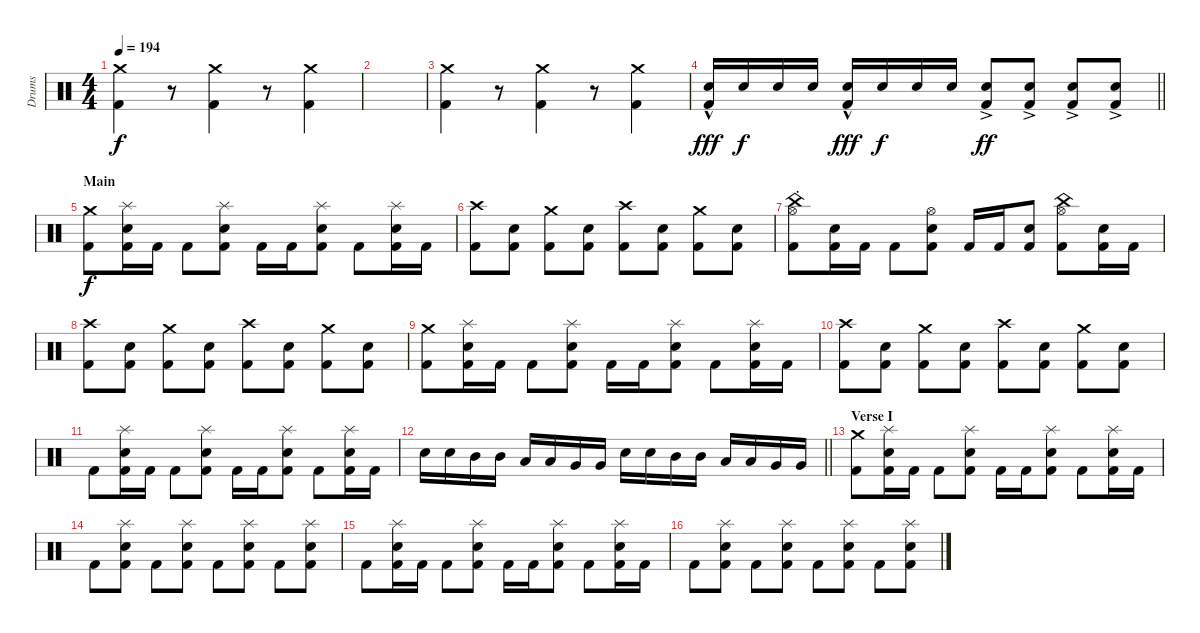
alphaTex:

\track ("Drums" "Drums") {instrument percussion}
\staff {score}
\articulation defaults
\ts (4 4)
\tempo 194
\clef neutral
\ks c
("Kick (hit) 2" "Crash medium (hit)").4{dy f} r.8 ("Kick (hit) 2" "Crash medium (hit)").4 r.8 ("Kick (hit) 2" "Crash medium (hit)").4 |
|
("Kick (hit) 2" "Crash medium (hit)").4 r.8 ("Kick (hit) 2" "Crash medium (hit)").4 r.8 ("Kick (hit) 2" "Crash medium (hit)").4 |
\barLineRight lightlight
("Kick (hit) 2"{hac} "Snare (hit) 2"{hac}).16{dy fff} "Snare (hit) 2".16{dy f} "Snare (hit) 2".16 "Snare (hit) 2".16 ("Kick (hit) 2"{hac} "Snare (hit) 2"{hac}).16{dy fff} "Snare (hit) 2".16{dy f} "Snare (hit) 2".16 "Snare (hit) 2".16 ("Kick (hit) 2" "Snare (hit) 2"{ac}).8{dy ff} ("Kick (hit) 2" "Snare (hit) 2"{ac}).8 ("Kick (hit) 2" "Snare (hit) 2"{ac}).8 ("Kick (hit) 2" "Snare (hit) 2"{ac}).8 |
\section ("" "Main")
("Kick (hit) 2" "Crash medium (hit)").8{dy f} ("Kick (hit) 2" "Snare (hit) 2" "Splash (hit)").16 "Kick (hit) 2".16 "Kick (hit) 2".8 ("Kick (hit) 2" "Snare (hit) 2" "Splash (hit)").8 "Kick (hit) 2".16 "Kick (hit) 2".16 ("Kick (hit) 2" "Snare (hit) 2" "Splash (hit)").8 "Kick (hit) 2".8 ("Kick (hit) 2" "Snare (hit) 2" "Splash (hit)").16 "Kick (hit) 2".16 |
("Kick (hit) 2" "Crash high (hit)").8 ("Kick (hit) 2" "Snare (hit) 2").8 ("Kick (hit) 2" "Crash medium (hit)").8 ("Kick (hit) 2" "Snare (hit) 2").8 ("Kick (hit) 2" "Crash high (hit)").8 ("Kick (hit) 2" "Snare (hit) 2").8 ("Kick (hit) 2" "Crash medium (hit)").8 ("Kick (hit) 2" "Snare (hit) 2").8 |
("Kick (hit) 2" "China (hit)"{st} "Hi-Hat (open)").8 ("Kick (hit) 2" "Snare (hit) 2").16 "Kick (hit) 2".16 "Kick (hit) 2".8 ("Kick (hit) 2" "Snare (hit) 2" "Hi-Hat (open)").8 "Kick (hit) 2".16 "Kick (hit) 2".16 ("Kick (hit) 2" "Snare (hit) 2").8 ("Kick (hit) 2" "China (hit)" "Hi-Hat (open)").8 ("Kick (hit) 2" "Snare (hit) 2").16 "Kick (hit) 2".16 |
("Kick (hit) 2" "Crash high (hit)").8 ("Kick (hit) 2" "Snare (hit) 2").8 ("Kick (hit) 2" "Crash medium (hit)").8 ("Kick (hit) 2" "Snare (hit) 2").8 ("Kick (hit) 2" "Crash high (hit)").8 ("Kick (hit) 2" "Snare (hit) 2").8 ("Kick (hit) 2" "Crash medium (hit)").8 ("Kick (hit) 2" "Snare (hit) 2").8 |
("Kick (hit) 2" "Crash medium (hit)").8 ("Kick (hit) 2" "Snare (hit) 2" "Splash (hit)").16 "Kick (hit) 2".16 "Kick (hit) 2".8 ("Kick (hit) 2" "Snare (hit) 2" "Splash (hit)").8 "Kick (hit) 2".16 "Kick (hit) 2".16 ("Kick (hit) 2" "Snare (hit) 2" "Splash (hit)").8 "Kick (hit) 2".8 ("Kick (hit) 2" "Snare (hit) 2" "Splash (hit)").16 "Kick (hit) 2".16 |
("Kick (hit) 2" "Crash high (hit)").8 ("Kick (hit) 2" "Snare (hit) 2").8 ("Kick (hit) 2" "Crash medium (hit)").8 ("Kick (hit) 2" "Snare (hit) 2").8 ("Kick (hit) 2" "Crash high (hit)").8 ("Kick (hit) 2" "Snare (hit) 2").8 ("Kick (hit) 2" "Crash medium (hit)").8 ("Kick (hit) 2" "Snare (hit) 2").8 |
"Kick (hit) 2".8 ("Kick (hit) 2" "Snare (hit) 2" "Splash (hit)").16 "Kick (hit) 2".16 "Kick (hit) 2".8 ("Kick (hit) 2" "Snare (hit) 2" "Splash (hit)").8 "Kick (hit) 2".16 "Kick (hit) 2".16 ("Kick (hit) 2" "Snare (hit) 2" "Splash (hit)").8 "Kick (hit) 2".8 ("Kick (hit) 2" "Snare (hit) 2" "Splash (hit)").16 "Kick (hit) 2".16 |
\barLineRight lightlight "Snare (hit) 2".16 "Snare (hit) 2".16 "Mid Tom (hit)".16 "Mid Tom (hit)".16 "Low Tom (hit)".16 "Low Tom (hit)".16 "Very Low Tom (hit)".16 "Very Low Tom (hit)".16 "Snare (hit) 2".16 "Snare (hit) 2".16 "Mid Tom (hit)".16 "Mid Tom (hit)".16 "Low Tom (hit)".16 "Low Tom (hit)".16 "Very Low Tom (hit)".16 "Very Low Tom (hit)".16
|
\section ("" "Verse I")
("Kick (hit) 2" "Crash medium (hit)").8 ("Kick (hit) 2" "Snare (hit) 2" "Splash (hit)").16 "Kick (hit) 2".16 "Kick (hit) 2".8 ("Kick (hit) 2" "Snare (hit) 2" "Splash (hit)").8 "Kick (hit) 2".16 "Kick (hit) 2".16 ("Kick (hit) 2" "Snare (hit) 2" "Splash (hit)").8 "Kick (hit) 2".8 ("Kick (hit) 2" "Snare (hit) 2" "Splash (hit)").16 "Kick (hit) 2".16 |
"Kick (hit) 2".8 ("Kick (hit) 2" "Snare (hit) 2" "Splash (hit)").8 "Kick (hit) 2".8 ("Kick (hit) 2" "Snare (hit) 2" "Splash (hit)").8 "Kick (hit) 2".8 ("Kick (hit) 2" "Snare (hit) 2" "Splash (hit)").8 "Kick (hit) 2".8 ("Kick (hit) 2" "Snare (hit) 2" "Splash (hit)").8 |
"Kick (hit) 2".8 ("Kick (hit) 2" "Snare (hit) 2" "Splash (hit)").16 "Kick (hit) 2".16 "Kick (hit) 2".8 ("Kick (hit) 2" "Snare (hit) 2" "Splash (hit)").8 "Kick (hit) 2".16 "Kick (hit) 2".16 ("Kick (hit) 2" "Snare (hit) 2" "Splash (hit)").8 "Kick (hit) 2".8 ("Kick (hit) 2" "Snare (hit) 2" "Splash (hit)").16 "Kick (hit) 2".16 |
"Kick (hit) 2".8 ("Kick (hit) 2" "Snare (hit) 2" "Splash (hit)").8 "Kick (hit) 2".8 ("Kick (hit) 2" "Snare (hit) 2" "Splash (hit)").8 "Kick (hit) 2".8 ("Kick (hit) 2" "Snare (hit) 2" "Splash (hit)").8 "Kick (hit) 2".8 ("Kick (hit) 2" "Snare (hit) 2" "Splash (hit)").8
